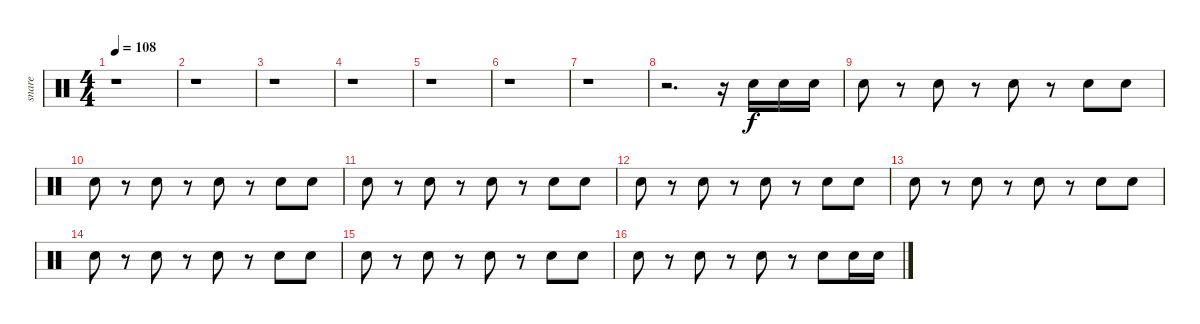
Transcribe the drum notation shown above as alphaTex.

\track ("snare               " "snare     ") {instrument percussion}
\staff {score}
\articulation defaults
\ts (4 4)
\tempo 108
\clef neutral
\ks c
r.1{dy f} |
r.1 |
r.1 |
r.1 |
r.1 |
r.1 |
r.1 |
r.2{d} r.16 "Snare (hit) 2".16 "Snare (hit) 2".16 "Snare (hit) 2".16 |
"Snare (hit) 2".8 r.8 "Snare (hit) 2".8 r.8 "Snare (hit) 2".8 r.8 "Snare (hit) 2".8 "Snare (hit) 2".8 |
"Snare (hit) 2".8 r.8 "Snare (hit) 2".8 r.8 "Snare (hit) 2".8 r.8 "Snare (hit) 2".8 "Snare (hit) 2".8 |
"Snare (hit) 2".8 r.8 "Snare (hit) 2".8 r.8 "Snare (hit) 2".8 r.8 "Snare (hit) 2".8 "Snare (hit) 2".8 |
"Snare (hit) 2".8 r.8 "Snare (hit) 2".8 r.8 "Snare (hit) 2".8 r.8 "Snare (hit) 2".8 "Snare (hit) 2".8 |
"Snare (hit) 2".8 r.8 "Snare (hit) 2".8 r.8 "Snare (hit) 2".8 r.8 "Snare (hit) 2".8 "Snare (hit) 2".8 |
"Snare (hit) 2".8 r.8 "Snare (hit) 2".8 r.8 "Snare (hit) 2".8 r.8 "Snare (hit) 2".8 "Snare (hit) 2".8 |
"Snare (hit) 2".8 r.8 "Snare (hit) 2".8 r.8 "Snare (hit) 2".8 r.8 "Snare (hit) 2".8 "Snare (hit) 2".8 |
"Snare (hit) 2".8 r.8 "Snare (hit) 2".8 r.8 "Snare (hit) 2".8 r.8 "Snare (hit) 2".8 "Snare (hit) 2".16 "Snare (hit) 2".16
